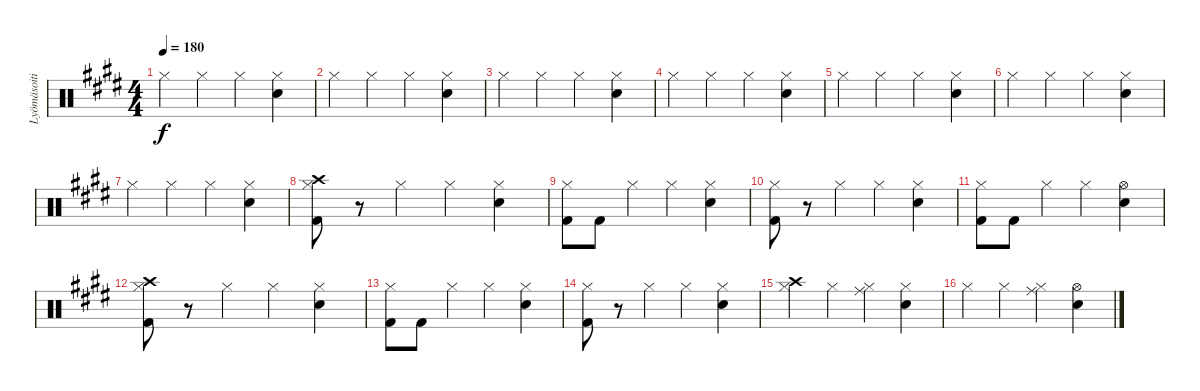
\track ("Lyömäsoitin" "Lyömäsoiti") {instrument percussion}
\staff {score}
\articulation defaults
\ts (4 4)
\tempo 180
\clef neutral
\ks e "Hi-Hat (closed)".4{dy f} "Hi-Hat (closed)".4 "Hi-Hat (closed)".4
("Hi-Hat (closed)" "Electric Snare (hit)").4 |
"Hi-Hat (closed)".4 "Hi-Hat (closed)".4 "Hi-Hat (closed)".4 ("Hi-Hat (closed)" "Electric Snare (hit)").4 |
"Hi-Hat (closed)".4 "Hi-Hat (closed)".4 "Hi-Hat (closed)".4 ("Hi-Hat (closed)" "Electric Snare (hit)").4 |
"Hi-Hat (closed)".4 "Hi-Hat (closed)".4 "Hi-Hat (closed)".4 ("Hi-Hat (closed)" "Electric Snare (hit)").4 |
"Hi-Hat (closed)".4 "Hi-Hat (closed)".4 "Hi-Hat (closed)".4 ("Hi-Hat (closed)" "Electric Snare (hit)").4 |
"Hi-Hat (closed)".4 "Hi-Hat (closed)".4 "Hi-Hat (closed)".4 ("Hi-Hat (closed)" "Electric Snare (hit)").4 |
"Hi-Hat (closed)".4 "Hi-Hat (closed)".4 "Hi-Hat (closed)".4 ("Hi-Hat (closed)" "Electric Snare (hit)").4 |
("Crash high (hit)" "Hi-Hat (closed)" "Kick (hit) 2").8 r.8 "Hi-Hat (closed)".4 "Hi-Hat (closed)".4 ("Hi-Hat (closed)" "Electric Snare (hit)").4 |
("Hi-Hat (closed)" "Kick (hit) 2").8 "Kick (hit) 2".8 "Hi-Hat (closed)".4 "Hi-Hat (closed)".4 ("Hi-Hat (closed)" "Electric Snare (hit)").4 |
("Hi-Hat (closed)" "Kick (hit) 2").8 r.8 "Hi-Hat (closed)".4 "Hi-Hat (closed)".4 ("Hi-Hat (closed)" "Electric Snare (hit)").4 |
("Hi-Hat (closed)" "Kick (hit) 2").8 "Kick (hit) 2".8 "Hi-Hat (closed)".4 "Hi-Hat (closed)".4 ("Hi-Hat (open)" "Electric Snare (hit)").4 |
("Crash high (hit)" "Hi-Hat (closed)" "Kick (hit) 2").8 r.8 "Hi-Hat (closed)".4 "Hi-Hat (closed)".4 ("Hi-Hat (closed)" "Electric Snare (hit)").4 |
("Hi-Hat (closed)" "Kick (hit) 2").8 "Kick (hit) 2".8 "Hi-Hat (closed)".4 "Hi-Hat (closed)".4 ("Hi-Hat (closed)" "Electric Snare (hit)").4 |
("Hi-Hat (closed)" "Kick (hit) 2").8 r.8 "Hi-Hat (closed)".4 "Hi-Hat (closed)".4 ("Hi-Hat (closed)" "Electric Snare (hit)").4 |
("Crash high (hit)" "Hi-Hat (closed)").4 "Hi-Hat (closed)".4 ("Ride (middle)" "Hi-Hat (closed)").4 ("Hi-Hat (closed)" "Electric Snare (hit)").4 |
"Hi-Hat (closed)".4 "Hi-Hat (closed)".4 ("Ride (middle)" "Hi-Hat (closed)").4 ("Hi-Hat (open)" "Electric Snare (hit)").4
